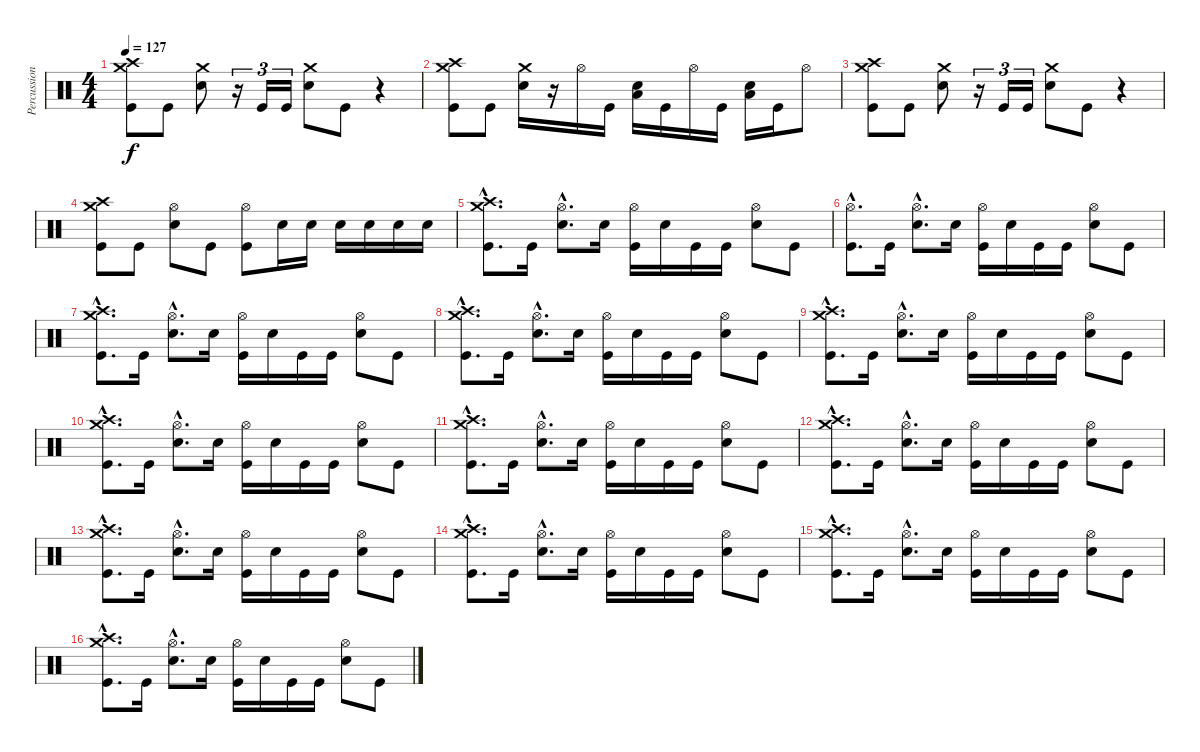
\track ("Percussions" "Percussion") {instrument percussion}
\staff {score}
\articulation defaults
\ts (4 4)
\tempo 127
\clef neutral
\ks c
("Crash high (hit)" "Crash medium (hit)" "Kick (hit)").8{dy f} "Kick (hit)".8 ("Crash medium (hit)" "Snare (hit) 2").8 r.16{tu (3 2)} "Kick (hit)".16{tu (3 2)} "Kick (hit)".16{tu (3 2)} ("Crash medium (hit)" "Snare (hit) 2").8 "Kick (hit)".8 r.4 |
("Crash high (hit)" "Crash medium (hit)" "Kick (hit)").8 "Kick (hit)".8 ("Crash medium (hit)" "Snare (hit) 2").16 r.16 "Hi-Hat (open)".16 "Kick (hit)".16 ("Low Tom (hit)" "Snare (hit) 2").16 "Kick (hit)".16 "Hi-Hat (open)".16 "Kick (hit)".16 ("Low Floor Tom (hit)" "Snare (hit) 2").16 "Kick (hit)".16 "Hi-Hat (open)".8 |
("Crash high (hit)" "Crash medium (hit)" "Kick (hit)").8 "Kick (hit)".8 ("Crash medium (hit)" "Snare (hit) 2").8 r.16{tu (3 2)} "Kick (hit)".16{tu (3 2)} "Kick (hit)".16{tu (3 2)} ("Crash medium (hit)" "Snare (hit) 2").8 "Kick (hit)".8 r.4 |
("Crash high (hit)" "Crash medium (hit)" "Kick (hit)").8 "Kick (hit)".8 ("Hi-Hat (open)" "Snare (hit) 2").8 "Kick (hit)".8 ("Hi-Hat (open)" "Kick (hit)").8 "Snare (hit) 2".16 "Snare (hit) 2".16 "Snare (hit) 2".16 "Snare (hit) 2".16 "Snare (hit) 2".16 "Snare (hit) 2".16 |
("Crash high (hit)"{hac} "Crash medium (hit)"{hac} "Kick (hit)"{hac}).8{d} "Kick (hit)".16 ("Hi-Hat (open)"{hac} "Snare (hit) 2"{hac}).8{d} "Snare (hit) 2".16 ("Hi-Hat (open)" "Kick (hit)").16 "Snare (hit) 2".16 "Kick (hit)".16 "Kick (hit)".16 ("Hi-Hat (open)" "Snare (hit) 2").8 "Kick (hit)".8 |
("Hi-Hat (open)"{hac} "Kick (hit)"{hac}).8{d} "Kick (hit)".16 ("Hi-Hat (open)"{hac} "Snare (hit) 2"{hac}).8{d} "Snare (hit) 2".16 ("Hi-Hat (open)" "Kick (hit)").16 "Snare (hit) 2".16 "Kick (hit)".16 "Kick (hit)".16 ("Hi-Hat (open)" "Snare (hit) 2").8 "Kick (hit)".8 |
("Crash high (hit)"{hac} "Crash medium (hit)"{hac} "Kick (hit)"{hac}).8{d} "Kick (hit)".16 ("Hi-Hat (open)"{hac} "Snare (hit) 2"{hac}).8{d} "Snare (hit) 2".16 ("Hi-Hat (open)" "Kick (hit)").16 "Snare (hit) 2".16 "Kick (hit)".16 "Kick (hit)".16 ("Hi-Hat (open)" "Snare (hit) 2").8 "Kick (hit)".8 |
("Crash high (hit)"{hac} "Crash medium (hit)"{hac} "Kick (hit)"{hac}).8{d} "Kick (hit)".16 ("Hi-Hat (open)"{hac} "Snare (hit) 2"{hac}).8{d} "Snare (hit) 2".16 ("Hi-Hat (open)" "Kick (hit)").16 "Snare (hit) 2".16 "Kick (hit)".16 "Kick (hit)".16 ("Hi-Hat (open)" "Snare (hit) 2").8 "Kick (hit)".8 |
("Crash high (hit)"{hac} "Crash medium (hit)"{hac} "Kick (hit)"{hac}).8{d} "Kick (hit)".16 ("Hi-Hat (open)"{hac} "Snare (hit) 2"{hac}).8{d} "Snare (hit) 2".16 ("Hi-Hat (open)" "Kick (hit)").16 "Snare (hit) 2".16 "Kick (hit)".16 "Kick (hit)".16 ("Hi-Hat (open)" "Snare (hit) 2").8 "Kick (hit)".8 |
("Crash high (hit)"{hac} "Crash medium (hit)"{hac} "Kick (hit)"{hac}).8{d} "Kick (hit)".16 ("Hi-Hat (open)"{hac} "Snare (hit) 2"{hac}).8{d} "Snare (hit) 2".16 ("Hi-Hat (open)" "Kick (hit)").16 "Snare (hit) 2".16 "Kick (hit)".16 "Kick (hit)".16 ("Hi-Hat (open)" "Snare (hit) 2").8 "Kick (hit)".8 |
("Crash high (hit)"{hac} "Crash medium (hit)"{hac} "Kick (hit)"{hac}).8{d} "Kick (hit)".16 ("Hi-Hat (open)"{hac} "Snare (hit) 2"{hac}).8{d} "Snare (hit) 2".16 ("Hi-Hat (open)" "Kick (hit)").16 "Snare (hit) 2".16 "Kick (hit)".16 "Kick (hit)".16 ("Hi-Hat (open)" "Snare (hit) 2").8 "Kick (hit)".8 |
("Crash high (hit)"{hac} "Crash medium (hit)"{hac} "Kick (hit)"{hac}).8{d} "Kick (hit)".16 ("Hi-Hat (open)"{hac} "Snare (hit) 2"{hac}).8{d} "Snare (hit) 2".16 ("Hi-Hat (open)" "Kick (hit)").16 "Snare (hit) 2".16 "Kick (hit)".16 "Kick (hit)".16 ("Hi-Hat (open)" "Snare (hit) 2").8 "Kick (hit)".8 |
("Crash high (hit)"{hac} "Crash medium (hit)"{hac} "Kick (hit)"{hac}).8{d} "Kick (hit)".16 ("Hi-Hat (open)"{hac} "Snare (hit) 2"{hac}).8{d} "Snare (hit) 2".16 ("Hi-Hat (open)" "Kick (hit)").16 "Snare (hit) 2".16 "Kick (hit)".16 "Kick (hit)".16 ("Hi-Hat (open)" "Snare (hit) 2").8 "Kick (hit)".8 |
("Crash high (hit)"{hac} "Crash medium (hit)"{hac} "Kick (hit)"{hac}).8{d} "Kick (hit)".16 ("Hi-Hat (open)"{hac} "Snare (hit) 2"{hac}).8{d} "Snare (hit) 2".16 ("Hi-Hat (open)" "Kick (hit)").16 "Snare (hit) 2".16 "Kick (hit)".16 "Kick (hit)".16 ("Hi-Hat (open)" "Snare (hit) 2").8 "Kick (hit)".8 |
("Crash high (hit)"{hac} "Crash medium (hit)"{hac} "Kick (hit)"{hac}).8{d} "Kick (hit)".16 ("Hi-Hat (open)"{hac} "Snare (hit) 2"{hac}).8{d} "Snare (hit) 2".16 ("Hi-Hat (open)" "Kick (hit)").16 "Snare (hit) 2".16 "Kick (hit)".16 "Kick (hit)".16 ("Hi-Hat (open)" "Snare (hit) 2").8 "Kick (hit)".8 |
("Crash high (hit)"{hac} "Crash medium (hit)"{hac} "Kick (hit)"{hac}).8{d} "Kick (hit)".16 ("Hi-Hat (open)"{hac} "Snare (hit) 2"{hac}).8{d} "Snare (hit) 2".16 ("Hi-Hat (open)" "Kick (hit)").16 "Snare (hit) 2".16 "Kick (hit)".16 "Kick (hit)".16 ("Hi-Hat (open)" "Snare (hit) 2").8 "Kick (hit)".8
